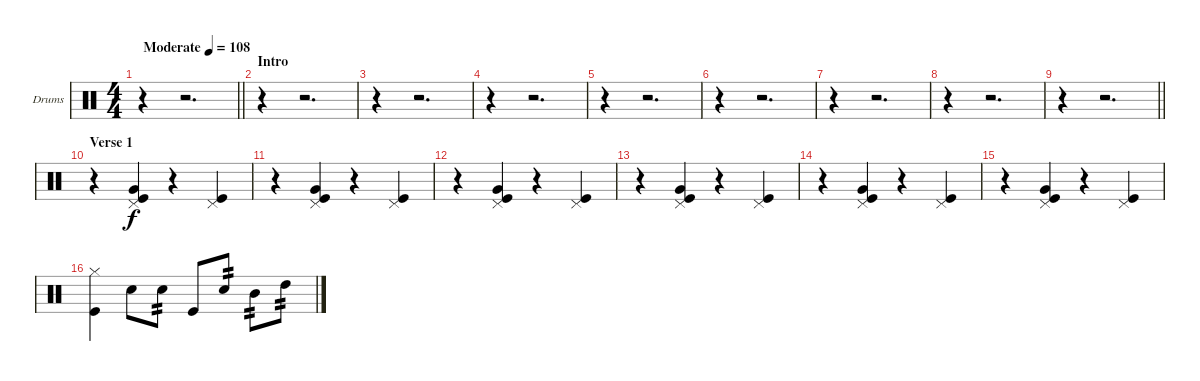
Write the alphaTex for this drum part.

\bracketExtendMode groupsimilarinstruments
\firstSystemTrackNameOrientation horizontal
\otherSystemsTrackNameOrientation horizontal
\track ("Drumkit" "Drums") {instrument percussion}
\staff {score}
\articulation defaults
\ts (4 4)
\beaming (8 2 2 2 2)
\tempo (108 "Moderate")
\clef neutral
\barLineRight lightlight
\ks c
r.4{dy f} r.2{d} |
\section ("" "Intro")
r.4 r.2{d} |
r.4 r.2{d} |
r.4 r.2{d} |
r.4 r.2{d} |
r.4 r.2{d} |
r.4 r.2{d} |
r.4 r.2{d} |
\barLineRight lightlight
r.4 r.2{d} |
\section ("" "Verse 1")
r.4 ("Pedal Hi-Hat (hit)" "Very Low Tom (hit)" "Kick (hit)").4 r.4 ("Pedal Hi-Hat (hit)" "Kick (hit)").4 |
r.4 ("Pedal Hi-Hat (hit)" "Very Low Tom (hit)" "Kick (hit)").4 r.4 ("Pedal Hi-Hat (hit)" "Kick (hit)").4 |
r.4 ("Pedal Hi-Hat (hit)" "Very Low Tom (hit)" "Kick (hit)").4 r.4 ("Pedal Hi-Hat (hit)" "Kick (hit)").4 |
r.4 ("Pedal Hi-Hat (hit)" "Very Low Tom (hit)" "Kick (hit)").4 r.4 ("Pedal Hi-Hat (hit)" "Kick (hit)").4 |
r.4 ("Pedal Hi-Hat (hit)" "Very Low Tom (hit)" "Kick (hit)").4 r.4 ("Pedal Hi-Hat (hit)" "Kick (hit)").4 |
r.4 ("Pedal Hi-Hat (hit)" "Very Low Tom (hit)" "Kick (hit)").4 r.4 ("Pedal Hi-Hat (hit)" "Kick (hit)").4 |
("Hi-Hat (closed)" "Kick (hit)").4 "Snare (hit) 2".8 "Snare (hit) 2".8{tp 2} "Kick (hit)".8 "Snare (hit) 2".8{tp 2} "Mid Tom (hit)".8{tp 2} "High Tom (hit)".8{tp 2}
